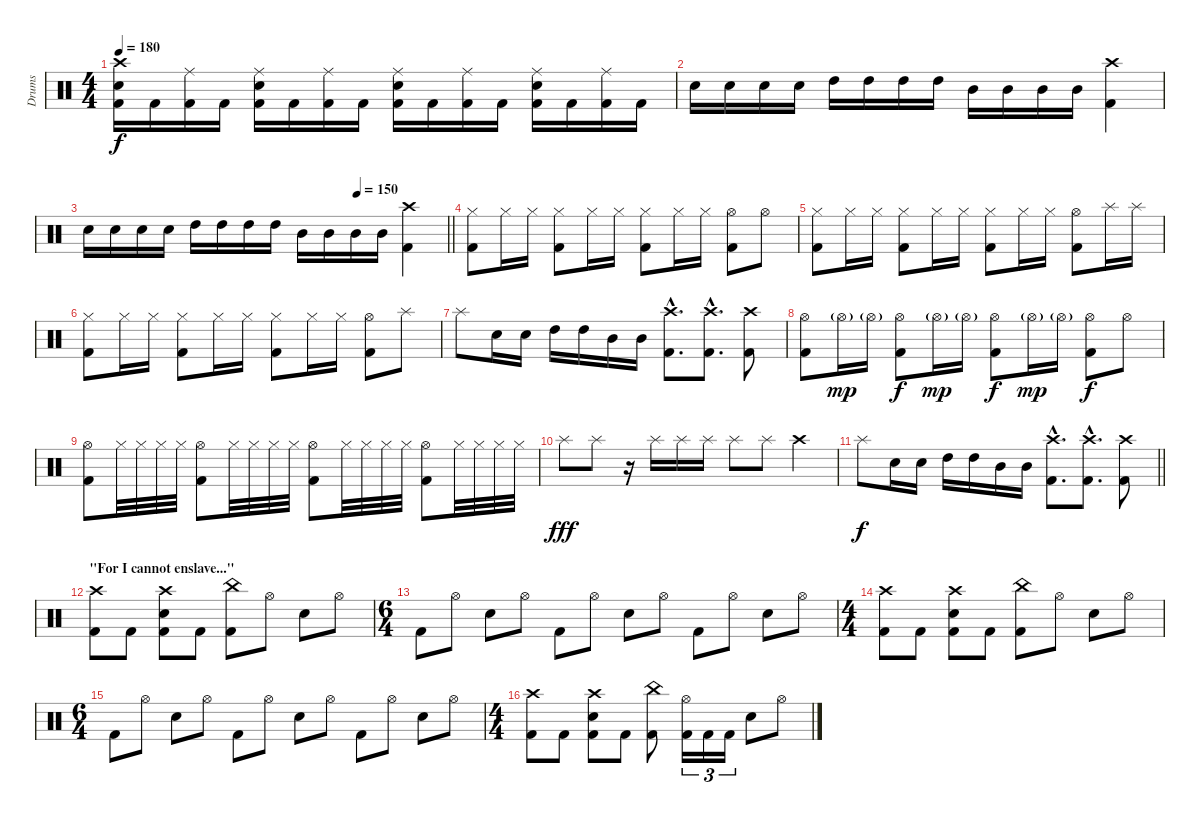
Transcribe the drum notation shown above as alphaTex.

\track ("Drums" "Drums") {instrument percussion}
\staff {score}
\articulation defaults
\ts (4 4)
\tempo 180
\clef neutral
\ks c
("Crash high (hit)" "Electric Snare (hit)" "Kick (hit) 2").16{dy f} "Kick (hit) 2".16 ("Ride (middle)" "Kick (hit) 2").16 "Kick (hit) 2".16 ("Ride (middle)" "Electric Snare (hit)" "Kick (hit) 2").16 "Kick (hit) 2".16 ("Ride (middle)" "Kick (hit) 2").16 "Kick (hit) 2".16 ("Ride (middle)" "Electric Snare (hit)" "Kick (hit) 2").16 "Kick (hit) 2".16 ("Ride (middle)" "Kick (hit) 2").16 "Kick (hit) 2".16 ("Ride (middle)" "Electric Snare (hit)" "Kick (hit) 2").16 "Kick (hit) 2".16 ("Ride (middle)" "Kick (hit) 2").16 "Kick (hit) 2".16 |
"Electric Snare (hit)".16 "Electric Snare (hit)".16 "Electric Snare (hit)".16 "Electric Snare (hit)".16 "High Tom (hit)".16 "High Tom (hit)".16 "High Tom (hit)".16 "High Tom (hit)".16 "Mid Tom (hit)".16 "Mid Tom (hit)".16 "Mid Tom (hit)".16 "Mid Tom (hit)".16 ("Crash high (hit)" "Kick (hit) 2").4 |
\tempo (150 0.75)
\barLineRight lightlight "Electric Snare (hit)".16 "Electric Snare (hit)".16 "Electric Snare (hit)".16 "Electric Snare (hit)".16 "High Tom (hit)".16 "High Tom (hit)".16 "High Tom (hit)".16 "High Tom (hit)".16 "Mid Tom (hit)".16 "Mid Tom (hit)".16 "Mid Tom (hit)".16 "Mid Tom (hit)".16
("Crash high (hit)" "Kick (hit) 2").4 |
\section ("" "")
("Hi-Hat (closed)" "Kick (hit) 2").8 "Hi-Hat (closed)".16 "Hi-Hat (closed)".16 ("Hi-Hat (closed)" "Kick (hit) 2").8 "Hi-Hat (closed)".16 "Hi-Hat (closed)".16 ("Hi-Hat (closed)" "Kick (hit) 2").8 "Hi-Hat (closed)".16 "Hi-Hat (closed)".16 ("Hi-Hat (open)" "Kick (hit) 2").8 "Hi-Hat (open)".8 |
("Hi-Hat (closed)" "Kick (hit) 2").8 "Hi-Hat (closed)".16 "Hi-Hat (closed)".16 ("Hi-Hat (closed)" "Kick (hit) 2").8 "Hi-Hat (closed)".16 "Hi-Hat (closed)".16 ("Hi-Hat (closed)" "Kick (hit) 2").8 "Hi-Hat (closed)".16 "Hi-Hat (closed)".16 ("Hi-Hat (open)" "Kick (hit) 2").8 "Splash (hit)".16 "Splash (hit)".16 |
("Hi-Hat (closed)" "Kick (hit) 2").8 "Hi-Hat (closed)".16 "Hi-Hat (closed)".16 ("Hi-Hat (closed)" "Kick (hit) 2").8 "Hi-Hat (closed)".16 "Hi-Hat (closed)".16 ("Hi-Hat (closed)" "Kick (hit) 2").8 "Hi-Hat (closed)".16 "Hi-Hat (closed)".16 ("Hi-Hat (open)" "Kick (hit) 2").8 "Splash (hit)".8 |
"Splash (hit)".8 "Electric Snare (hit)".16 "Electric Snare (hit)".16 "High Tom (hit)".16 "High Tom (hit)".16 "Mid Tom (hit)".16 "Mid Tom (hit)".16 ("Crash high (hit)"{hac} "Kick (hit) 2"{hac}).8{d} ("Crash high (hit)"{hac} "Kick (hit) 2"{hac}).8{d} ("Crash high (hit)" "Kick (hit) 2").8 |
("Hi-Hat (open)" "Kick (hit) 2").8 "Hi-Hat (open)"{g}.16{dy mp} "Hi-Hat (open)"{g}.16 ("Hi-Hat (open)" "Kick (hit) 2").8{dy f} "Hi-Hat (open)"{g}.16{dy mp} "Hi-Hat (open)"{g}.16 ("Hi-Hat (open)" "Kick (hit) 2").8{dy f} "Hi-Hat (open)"{g}.16{dy mp} "Hi-Hat (open)"{g}.16 ("Hi-Hat (open)" "Kick (hit) 2").8{dy f} "Hi-Hat (open)".8 |
("Hi-Hat (open)" "Kick (hit) 2").8 "Hi-Hat (closed)".32 "Hi-Hat (closed)".32 "Hi-Hat (closed)".32 "Hi-Hat (closed)".32 ("Hi-Hat (open)" "Kick (hit) 2").8 "Hi-Hat (closed)".32 "Hi-Hat (closed)".32 "Hi-Hat (closed)".32 "Hi-Hat (closed)".32 ("Hi-Hat (open)" "Kick (hit) 2").8 "Hi-Hat (closed)".32 "Hi-Hat (closed)".32 "Hi-Hat (closed)".32 "Hi-Hat (closed)".32 ("Hi-Hat (open)" "Kick (hit) 2").8 "Hi-Hat (closed)".32 "Hi-Hat (closed)".32 "Hi-Hat (closed)".32 "Hi-Hat (closed)".32 |
"Splash (hit)".8{dy fff} "Splash (hit)".8 r.16 "Splash (hit)".16 "Splash (hit)".16 "Splash (hit)".16 "Splash (hit)".8 "Splash (hit)".8 "Crash high (hit)".4 |
\barLineRight lightlight "Splash (hit)".8{dy f} "Electric Snare (hit)".16 "Electric Snare (hit)".16 "High Tom (hit)".16 "High Tom (hit)".16 "Mid Tom (hit)".16 "Mid Tom (hit)".16
("Crash high (hit)"{hac} "Kick (hit) 2"{hac}).8{d} ("Crash high (hit)"{hac} "Kick (hit) 2"{hac}).8{d} ("Crash high (hit)" "Kick (hit) 2").8 |
\section ("" "\"For I cannot enslave...\"")
("Crash high (hit)" "Kick (hit) 2").8 "Kick (hit) 2".8 ("Crash high (hit)" "Electric Snare (hit)" "Kick (hit) 2").8 "Kick (hit) 2".8 ("China (hit)" "Kick (hit) 2").8 "Hi-Hat (open)".8 "Electric Snare (hit)".8 "Hi-Hat (open)".8 |
\ts (6 4)
"Kick (hit) 2".8 "Hi-Hat (open)".8 "Electric Snare (hit)".8 "Hi-Hat (open)".8 "Kick (hit) 2".8 "Hi-Hat (open)".8 "Electric Snare (hit)".8 "Hi-Hat (open)".8 "Kick (hit) 2".8 "Hi-Hat (open)".8 "Electric Snare (hit)".8 "Hi-Hat (open)".8 |
\ts (4 4)
("Crash high (hit)" "Kick (hit) 2").8 "Kick (hit) 2".8 ("Crash high (hit)" "Electric Snare (hit)" "Kick (hit) 2").8 "Kick (hit) 2".8 ("China (hit)" "Kick (hit) 2").8 "Hi-Hat (open)".8 "Electric Snare (hit)".8 "Hi-Hat (open)".8 |
\ts (6 4)
"Kick (hit) 2".8 "Hi-Hat (open)".8 "Electric Snare (hit)".8 "Hi-Hat (open)".8 "Kick (hit) 2".8 "Hi-Hat (open)".8 "Electric Snare (hit)".8 "Hi-Hat (open)".8 "Kick (hit) 2".8 "Hi-Hat (open)".8 "Electric Snare (hit)".8 "Hi-Hat (open)".8 |
\ts (4 4)
("Crash high (hit)" "Kick (hit) 2").8 "Kick (hit) 2".8 ("Crash high (hit)" "Electric Snare (hit)" "Kick (hit) 2").8 "Kick (hit) 2".8 ("China (hit)" "Kick (hit) 2").8 ("Hi-Hat (open)" "Kick (hit) 2").16{tu (3 2)} "Kick (hit) 2".16{tu (3 2)} "Kick (hit) 2".16{tu (3 2)} "Electric Snare (hit)".8 "Hi-Hat (open)".8
